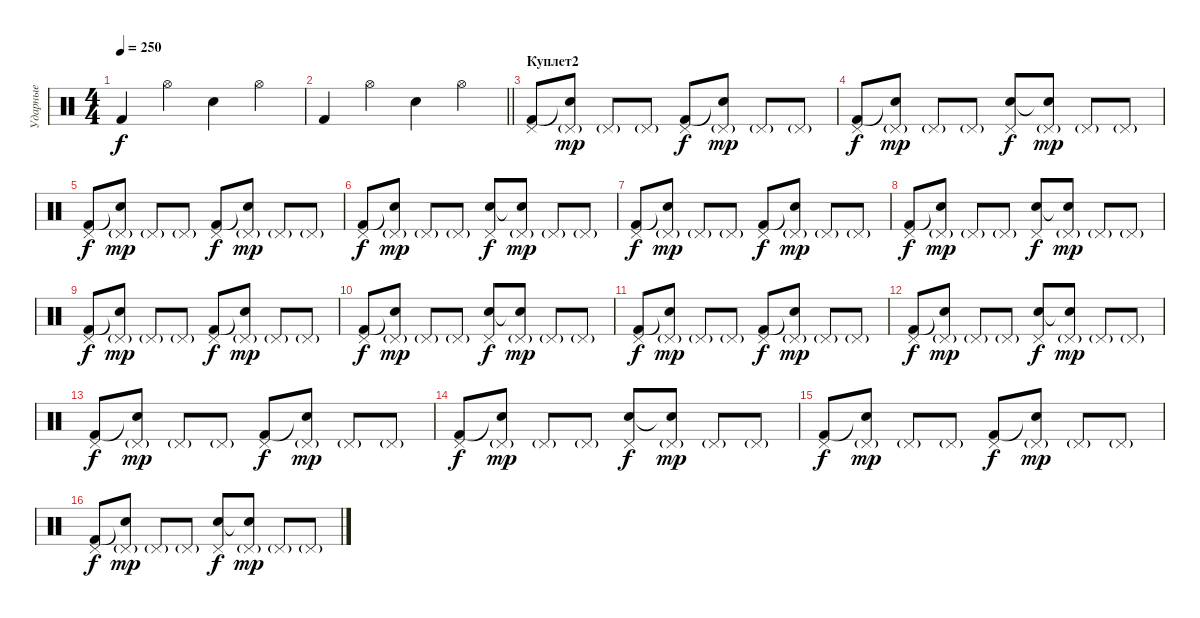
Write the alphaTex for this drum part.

\track ("Ударные" "Ударные") {instrument percussion}
\staff {score}
\articulation defaults
\ts (4 4)
\tempo 250
\clef neutral
\ks c "Kick (hit) 2".4{dy f} "Hi-Hat (open)".4 "Snare (hit) 2".4 "Hi-Hat (open)".4
|
\barLineRight lightlight "Kick (hit) 2".4 "Hi-Hat (open)".4 "Snare (hit) 2".4 "Hi-Hat (open)".4
|
\section ("" "Куплет2")
("Pedal Hi-Hat (hit)" "Kick (hit) 2").8 ("Pedal Hi-Hat (hit)"{g} "Snare (hit)"{t}).8{dy mp} "Pedal Hi-Hat (hit)"{g}.8 "Pedal Hi-Hat (hit)"{g}.8 ("Pedal Hi-Hat (hit)" "Kick (hit) 2").8{dy f} ("Pedal Hi-Hat (hit)"{g} "Snare (hit)"{t}).8{dy mp} "Pedal Hi-Hat (hit)"{g}.8 "Pedal Hi-Hat (hit)"{g}.8 |
("Pedal Hi-Hat (hit)" "Kick (hit) 2").8{dy f} ("Pedal Hi-Hat (hit)"{g} "Snare (hit)"{t}).8{dy mp} "Pedal Hi-Hat (hit)"{g}.8 "Pedal Hi-Hat (hit)"{g}.8 ("Pedal Hi-Hat (hit)" "Electric Snare (hit)").8{dy f} ("Pedal Hi-Hat (hit)"{g} "Snare (hit)"{t}).8{dy mp} "Pedal Hi-Hat (hit)"{g}.8 "Pedal Hi-Hat (hit)"{g}.8 |
("Pedal Hi-Hat (hit)" "Kick (hit) 2").8{dy f} ("Pedal Hi-Hat (hit)"{g} "Snare (hit)"{t}).8{dy mp} "Pedal Hi-Hat (hit)"{g}.8 "Pedal Hi-Hat (hit)"{g}.8 ("Pedal Hi-Hat (hit)" "Kick (hit) 2").8{dy f} ("Pedal Hi-Hat (hit)"{g} "Snare (hit)"{t}).8{dy mp} "Pedal Hi-Hat (hit)"{g}.8 "Pedal Hi-Hat (hit)"{g}.8 |
("Pedal Hi-Hat (hit)" "Kick (hit) 2").8{dy f} ("Pedal Hi-Hat (hit)"{g} "Snare (hit)"{t}).8{dy mp} "Pedal Hi-Hat (hit)"{g}.8 "Pedal Hi-Hat (hit)"{g}.8 ("Pedal Hi-Hat (hit)" "Electric Snare (hit)").8{dy f} ("Pedal Hi-Hat (hit)"{g} "Snare (hit)"{t}).8{dy mp} "Pedal Hi-Hat (hit)"{g}.8 "Pedal Hi-Hat (hit)"{g}.8 |
("Pedal Hi-Hat (hit)" "Kick (hit) 2").8{dy f} ("Pedal Hi-Hat (hit)"{g} "Snare (hit)"{t}).8{dy mp} "Pedal Hi-Hat (hit)"{g}.8 "Pedal Hi-Hat (hit)"{g}.8 ("Pedal Hi-Hat (hit)" "Kick (hit) 2").8{dy f} ("Pedal Hi-Hat (hit)"{g} "Snare (hit)"{t}).8{dy mp} "Pedal Hi-Hat (hit)"{g}.8 "Pedal Hi-Hat (hit)"{g}.8 |
("Pedal Hi-Hat (hit)" "Kick (hit) 2").8{dy f} ("Pedal Hi-Hat (hit)"{g} "Snare (hit)"{t}).8{dy mp} "Pedal Hi-Hat (hit)"{g}.8 "Pedal Hi-Hat (hit)"{g}.8 ("Pedal Hi-Hat (hit)" "Electric Snare (hit)").8{dy f} ("Pedal Hi-Hat (hit)"{g} "Snare (hit)"{t}).8{dy mp} "Pedal Hi-Hat (hit)"{g}.8 "Pedal Hi-Hat (hit)"{g}.8 |
("Pedal Hi-Hat (hit)" "Kick (hit) 2").8{dy f} ("Pedal Hi-Hat (hit)"{g} "Snare (hit)"{t}).8{dy mp} "Pedal Hi-Hat (hit)"{g}.8 "Pedal Hi-Hat (hit)"{g}.8 ("Pedal Hi-Hat (hit)" "Kick (hit) 2").8{dy f} ("Pedal Hi-Hat (hit)"{g} "Snare (hit)"{t}).8{dy mp} "Pedal Hi-Hat (hit)"{g}.8 "Pedal Hi-Hat (hit)"{g}.8 |
("Pedal Hi-Hat (hit)" "Kick (hit) 2").8{dy f} ("Pedal Hi-Hat (hit)"{g} "Snare (hit)"{t}).8{dy mp} "Pedal Hi-Hat (hit)"{g}.8 "Pedal Hi-Hat (hit)"{g}.8 ("Pedal Hi-Hat (hit)" "Electric Snare (hit)").8{dy f} ("Pedal Hi-Hat (hit)"{g} "Snare (hit)"{t}).8{dy mp} "Pedal Hi-Hat (hit)"{g}.8 "Pedal Hi-Hat (hit)"{g}.8 |
("Pedal Hi-Hat (hit)" "Kick (hit) 2").8{dy f} ("Pedal Hi-Hat (hit)"{g} "Snare (hit)"{t}).8{dy mp} "Pedal Hi-Hat (hit)"{g}.8 "Pedal Hi-Hat (hit)"{g}.8 ("Pedal Hi-Hat (hit)" "Kick (hit) 2").8{dy f} ("Pedal Hi-Hat (hit)"{g} "Snare (hit)"{t}).8{dy mp} "Pedal Hi-Hat (hit)"{g}.8 "Pedal Hi-Hat (hit)"{g}.8 |
("Pedal Hi-Hat (hit)" "Kick (hit) 2").8{dy f} ("Pedal Hi-Hat (hit)"{g} "Snare (hit)"{t}).8{dy mp} "Pedal Hi-Hat (hit)"{g}.8 "Pedal Hi-Hat (hit)"{g}.8 ("Pedal Hi-Hat (hit)" "Electric Snare (hit)").8{dy f} ("Pedal Hi-Hat (hit)"{g} "Snare (hit)"{t}).8{dy mp} "Pedal Hi-Hat (hit)"{g}.8 "Pedal Hi-Hat (hit)"{g}.8 |
("Pedal Hi-Hat (hit)" "Kick (hit) 2").8{dy f} ("Pedal Hi-Hat (hit)"{g} "Snare (hit)"{t}).8{dy mp} "Pedal Hi-Hat (hit)"{g}.8 "Pedal Hi-Hat (hit)"{g}.8 ("Pedal Hi-Hat (hit)" "Kick (hit) 2").8{dy f} ("Pedal Hi-Hat (hit)"{g} "Snare (hit)"{t}).8{dy mp} "Pedal Hi-Hat (hit)"{g}.8 "Pedal Hi-Hat (hit)"{g}.8 |
("Pedal Hi-Hat (hit)" "Kick (hit) 2").8{dy f} ("Pedal Hi-Hat (hit)"{g} "Snare (hit)"{t}).8{dy mp} "Pedal Hi-Hat (hit)"{g}.8 "Pedal Hi-Hat (hit)"{g}.8 ("Pedal Hi-Hat (hit)" "Electric Snare (hit)").8{dy f} ("Pedal Hi-Hat (hit)"{g} "Snare (hit)"{t}).8{dy mp} "Pedal Hi-Hat (hit)"{g}.8 "Pedal Hi-Hat (hit)"{g}.8 |
("Pedal Hi-Hat (hit)" "Kick (hit) 2").8{dy f} ("Pedal Hi-Hat (hit)"{g} "Snare (hit)"{t}).8{dy mp} "Pedal Hi-Hat (hit)"{g}.8 "Pedal Hi-Hat (hit)"{g}.8 ("Pedal Hi-Hat (hit)" "Kick (hit) 2").8{dy f} ("Pedal Hi-Hat (hit)"{g} "Snare (hit)"{t}).8{dy mp} "Pedal Hi-Hat (hit)"{g}.8 "Pedal Hi-Hat (hit)"{g}.8 |
("Pedal Hi-Hat (hit)" "Kick (hit) 2").8{dy f} ("Pedal Hi-Hat (hit)"{g} "Snare (hit)"{t}).8{dy mp} "Pedal Hi-Hat (hit)"{g}.8 "Pedal Hi-Hat (hit)"{g}.8 ("Pedal Hi-Hat (hit)" "Electric Snare (hit)").8{dy f} ("Pedal Hi-Hat (hit)"{g} "Snare (hit)"{t}).8{dy mp} "Pedal Hi-Hat (hit)"{g}.8 "Pedal Hi-Hat (hit)"{g}.8
